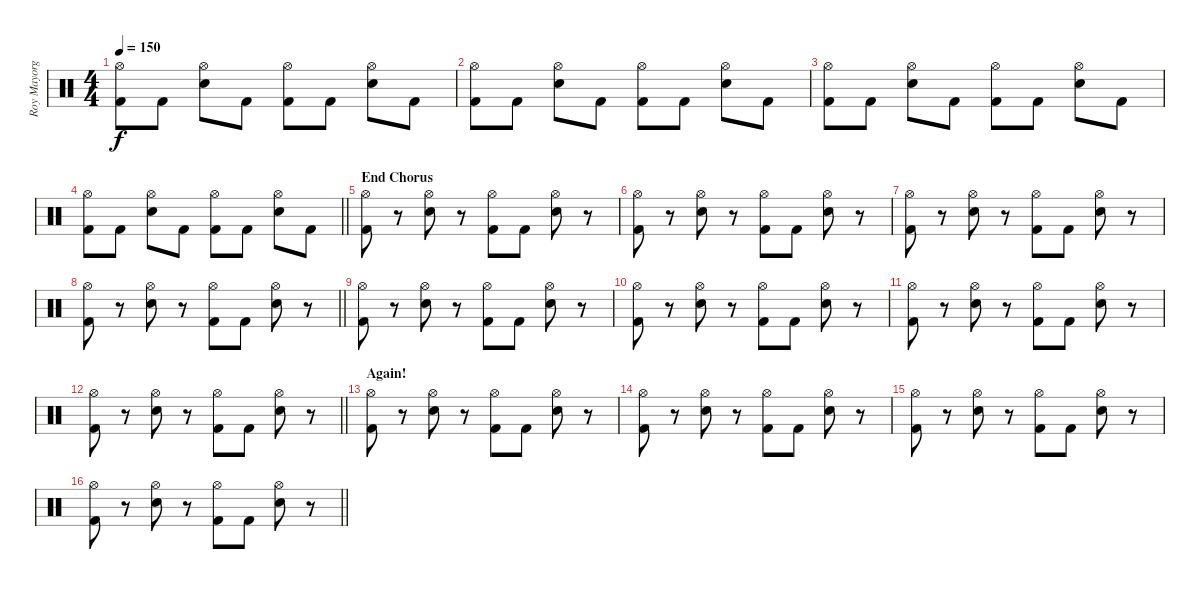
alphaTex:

\track ("Roy Mayorga" "Roy Mayorg") {instrument percussion}
\staff {score}
\articulation defaults
\ts (4 4)
\tempo 150
\clef neutral
\ks c
("Hi-Hat (open)" "Kick (hit) 2").8{dy f} "Kick (hit) 2".8 ("Hi-Hat (open)" "Electric Snare (hit)").8 "Kick (hit) 2".8 ("Hi-Hat (open)" "Kick (hit) 2").8 "Kick (hit) 2".8 ("Hi-Hat (open)" "Electric Snare (hit)").8 "Kick (hit) 2".8 |
("Hi-Hat (open)" "Kick (hit) 2").8 "Kick (hit) 2".8 ("Hi-Hat (open)" "Electric Snare (hit)").8 "Kick (hit) 2".8 ("Hi-Hat (open)" "Kick (hit) 2").8 "Kick (hit) 2".8 ("Hi-Hat (open)" "Electric Snare (hit)").8 "Kick (hit) 2".8 |
("Hi-Hat (open)" "Kick (hit) 2").8 "Kick (hit) 2".8 ("Hi-Hat (open)" "Electric Snare (hit)").8 "Kick (hit) 2".8 ("Hi-Hat (open)" "Kick (hit) 2").8 "Kick (hit) 2".8 ("Hi-Hat (open)" "Electric Snare (hit)").8 "Kick (hit) 2".8 |
\barLineRight lightlight
("Hi-Hat (open)" "Kick (hit) 2").8 "Kick (hit) 2".8 ("Hi-Hat (open)" "Electric Snare (hit)").8 "Kick (hit) 2".8 ("Hi-Hat (open)" "Kick (hit) 2").8 "Kick (hit) 2".8 ("Hi-Hat (open)" "Electric Snare (hit)").8 "Kick (hit) 2".8 |
\section ("" "End Chorus")
("Hi-Hat (open)" "Kick (hit) 2").8 r.8 ("Hi-Hat (open)" "Electric Snare (hit)").8 r.8 ("Hi-Hat (open)" "Kick (hit) 2").8 "Kick (hit) 2".8 ("Hi-Hat (open)" "Electric Snare (hit)").8 r.8 |
("Hi-Hat (open)" "Kick (hit) 2").8 r.8 ("Hi-Hat (open)" "Electric Snare (hit)").8 r.8 ("Hi-Hat (open)" "Kick (hit) 2").8 "Kick (hit) 2".8 ("Hi-Hat (open)" "Electric Snare (hit)").8 r.8 |
("Hi-Hat (open)" "Kick (hit) 2").8 r.8 ("Hi-Hat (open)" "Electric Snare (hit)").8 r.8 ("Hi-Hat (open)" "Kick (hit) 2").8 "Kick (hit) 2".8 ("Hi-Hat (open)" "Electric Snare (hit)").8 r.8 |
\barLineRight lightlight
("Hi-Hat (open)" "Kick (hit) 2").8 r.8 ("Hi-Hat (open)" "Electric Snare (hit)").8 r.8 ("Hi-Hat (open)" "Kick (hit) 2").8 "Kick (hit) 2".8 ("Hi-Hat (open)" "Electric Snare (hit)").8 r.8 |
("Hi-Hat (open)" "Kick (hit) 2").8 r.8 ("Hi-Hat (open)" "Electric Snare (hit)").8 r.8 ("Hi-Hat (open)" "Kick (hit) 2").8 "Kick (hit) 2".8 ("Hi-Hat (open)" "Electric Snare (hit)").8 r.8 |
("Hi-Hat (open)" "Kick (hit) 2").8 r.8 ("Hi-Hat (open)" "Electric Snare (hit)").8 r.8 ("Hi-Hat (open)" "Kick (hit) 2").8 "Kick (hit) 2".8 ("Hi-Hat (open)" "Electric Snare (hit)").8 r.8 |
("Hi-Hat (open)" "Kick (hit) 2").8 r.8 ("Hi-Hat (open)" "Electric Snare (hit)").8 r.8 ("Hi-Hat (open)" "Kick (hit) 2").8 "Kick (hit) 2".8 ("Hi-Hat (open)" "Electric Snare (hit)").8 r.8 |
\barLineRight lightlight
("Hi-Hat (open)" "Kick (hit) 2").8 r.8 ("Hi-Hat (open)" "Electric Snare (hit)").8 r.8 ("Hi-Hat (open)" "Kick (hit) 2").8 "Kick (hit) 2".8 ("Hi-Hat (open)" "Electric Snare (hit)").8 r.8 |
\section ("" "Again!")
("Hi-Hat (open)" "Kick (hit) 2").8 r.8 ("Hi-Hat (open)" "Electric Snare (hit)").8 r.8 ("Hi-Hat (open)" "Kick (hit) 2").8 "Kick (hit) 2".8 ("Hi-Hat (open)" "Electric Snare (hit)").8 r.8 |
("Hi-Hat (open)" "Kick (hit) 2").8 r.8 ("Hi-Hat (open)" "Electric Snare (hit)").8 r.8 ("Hi-Hat (open)" "Kick (hit) 2").8 "Kick (hit) 2".8 ("Hi-Hat (open)" "Electric Snare (hit)").8 r.8 |
("Hi-Hat (open)" "Kick (hit) 2").8 r.8 ("Hi-Hat (open)" "Electric Snare (hit)").8 r.8 ("Hi-Hat (open)" "Kick (hit) 2").8 "Kick (hit) 2".8 ("Hi-Hat (open)" "Electric Snare (hit)").8 r.8 |
\barLineRight lightlight
("Hi-Hat (open)" "Kick (hit) 2").8 r.8 ("Hi-Hat (open)" "Electric Snare (hit)").8 r.8 ("Hi-Hat (open)" "Kick (hit) 2").8 "Kick (hit) 2".8 ("Hi-Hat (open)" "Electric Snare (hit)").8 r.8
